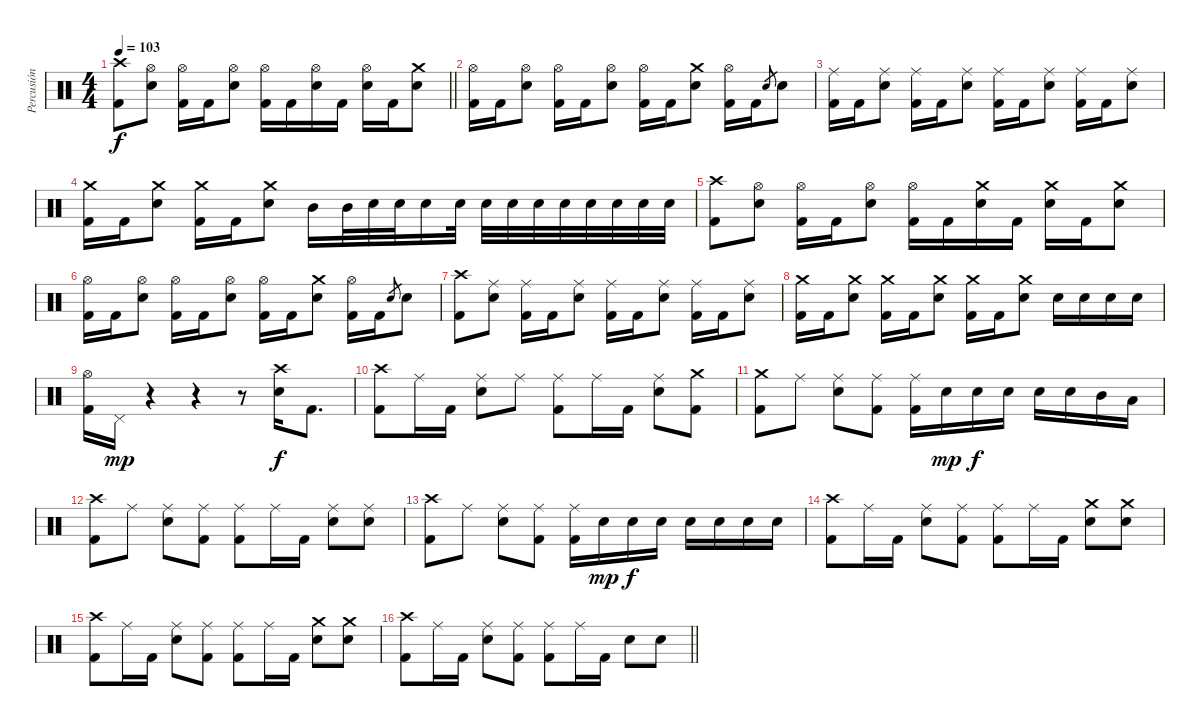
\track ("Percusión" "Percusión") {instrument percussion}
\staff {score}
\articulation defaults
\ts (4 4)
\tempo 103
\clef neutral
\barLineRight lightlight
\ks c
("Crash high (hit)" "Kick (hit) 2").8{dy f} ("Hi-Hat (open)" "Snare (hit) 2").8 ("Hi-Hat (open)" "Kick (hit) 2").16 "Kick (hit) 2".16 ("Hi-Hat (open)" "Snare (hit) 2").8 ("Hi-Hat (open)" "Kick (hit) 2").16 "Kick (hit) 2".16 ("Hi-Hat (open)" "Snare (hit) 2").16 "Kick (hit) 2".16 ("Hi-Hat (open)" "Snare (hit) 2").16 "Kick (hit) 2".16 ("Crash medium (hit)" "Snare (hit) 2").8 |
("Hi-Hat (open)" "Kick (hit) 2").16 "Kick (hit) 2".16 ("Hi-Hat (open)" "Snare (hit) 2").8 ("Hi-Hat (open)" "Kick (hit) 2").16 "Kick (hit) 2".16 ("Hi-Hat (open)" "Snare (hit) 2").8 ("Hi-Hat (open)" "Kick (hit) 2").16 "Kick (hit) 2".16 ("Crash medium (hit)" "Snare (hit) 2").8 ("Hi-Hat (open)" "Kick (hit) 2").16 "Kick (hit) 2".16 "Snare (hit) 2".8{gr} "Snare (hit) 2".8 |
("Ride (middle)" "Kick (hit) 2").16 "Kick (hit) 2".16 ("Ride (middle)" "Snare (hit) 2").8 ("Ride (middle)" "Kick (hit) 2").16 "Kick (hit) 2".16 ("Ride (middle)" "Snare (hit) 2").8 ("Ride (middle)" "Kick (hit) 2").16 "Kick (hit) 2".16 ("Ride (middle)" "Snare (hit) 2").8 ("Ride (middle)" "Kick (hit) 2").16 "Kick (hit) 2".16 ("Ride (middle)" "Snare (hit) 2").8 |
("Crash medium (hit)" "Kick (hit) 2").16 "Kick (hit) 2".16 ("Crash medium (hit)" "Snare (hit) 2").8 ("Crash medium (hit)" "Kick (hit) 2").16 "Kick (hit) 2".16 ("Crash medium (hit)" "Snare (hit) 2").8 "Mid Tom (hit)".16 "Mid Tom (hit)".32 "Snare (hit) 2".32 "Snare (hit) 2".32 "Snare (hit) 2".16 "Snare (hit) 2".32 "Snare (hit) 2".32 "Snare (hit) 2".32 "Snare (hit) 2".32 "Snare (hit) 2".32 "Snare (hit) 2".32 "Snare (hit) 2".32 "Snare (hit) 2".32 "Snare (hit) 2".32 |
("Crash high (hit)" "Kick (hit) 2").8 ("Hi-Hat (open)" "Snare (hit) 2").8 ("Hi-Hat (open)" "Kick (hit) 2").16 "Kick (hit) 2".16 ("Hi-Hat (open)" "Snare (hit) 2").8 ("Hi-Hat (open)" "Kick (hit) 2").16 "Kick (hit) 2".16 ("Crash medium (hit)" "Snare (hit) 2").16 "Kick (hit) 2".16 ("Crash medium (hit)" "Snare (hit) 2").16 "Kick (hit) 2".16 ("Crash medium (hit)" "Snare (hit) 2").8 |
("Hi-Hat (open)" "Kick (hit) 2").16 "Kick (hit) 2".16 ("Hi-Hat (open)" "Snare (hit) 2").8 ("Hi-Hat (open)" "Kick (hit) 2").16 "Kick (hit) 2".16 ("Hi-Hat (open)" "Snare (hit) 2").8 ("Hi-Hat (open)" "Kick (hit) 2").16 "Kick (hit) 2".16 ("Crash medium (hit)" "Snare (hit) 2").8 ("Hi-Hat (open)" "Kick (hit) 2").16 "Kick (hit) 2".16 "Snare (hit) 2".8{gr} "Snare (hit) 2".8 |
("Crash high (hit)" "Kick (hit) 2").8 ("Ride (middle)" "Snare (hit) 2").8 ("Ride (middle)" "Kick (hit) 2").16 "Kick (hit) 2".16 ("Ride (middle)" "Snare (hit) 2").8 ("Ride (middle)" "Kick (hit) 2").16 "Kick (hit) 2".16 ("Ride (middle)" "Snare (hit) 2").8 ("Ride (middle)" "Kick (hit) 2").16 "Kick (hit) 2".16 ("Ride (middle)" "Snare (hit) 2").8 |
("Crash medium (hit)" "Kick (hit) 2").16 "Kick (hit) 2".16 ("Crash medium (hit)" "Snare (hit) 2").8 ("Crash medium (hit)" "Kick (hit) 2").16 "Kick (hit) 2".16 ("Crash medium (hit)" "Snare (hit) 2").8 ("Crash medium (hit)" "Kick (hit) 2").16 "Kick (hit) 2".16 ("Crash medium (hit)" "Snare (hit) 2").8 "Snare (hit) 2".16 "Snare (hit) 2".16 "Snare (hit) 2".16 "Snare (hit) 2".16 |
("Hi-Hat (open)" "Kick (hit) 2").16 "Pedal Hi-Hat (hit)".16{dy mp} r.4 r.4 r.8 ("Crash high (hit)" "Snare (hit) 2").16{dy f} "Kick (hit) 2".8{d} |
("Crash high (hit)" "Kick (hit) 2").8 "Ride (middle)".16 "Kick (hit) 2".16 ("Ride (middle)" "Snare (hit) 2").8 "Ride (middle)".8 ("Ride (middle)" "Kick (hit) 2").8 "Ride (middle)".16 "Kick (hit) 2".16 ("Ride (middle)" "Snare (hit) 2").8 ("Crash medium (hit)" "Kick (hit) 2").8 |
("Crash medium (hit)" "Kick (hit) 2").8 "Ride (middle)".8 ("Ride (middle)" "Snare (hit) 2").8 ("Ride (middle)" "Kick (hit) 2").8 ("Ride (middle)" "Kick (hit) 2").16 "Snare (hit) 2".16{dy mp} "Snare (hit) 2".16{dy f} "Snare (hit) 2".16 "Snare (hit) 2".16 "Snare (hit) 2".16 "Mid Tom (hit)".16 "Low Tom (hit)".16 |
("Crash high (hit)" "Kick (hit) 2").8 "Ride (middle)".8 ("Ride (middle)" "Snare (hit) 2").8 ("Ride (middle)" "Kick (hit) 2").8 ("Ride (middle)" "Kick (hit) 2").8 "Ride (middle)".16 "Kick (hit) 2".16 ("Ride (middle)" "Snare (hit) 2").8 ("Ride (middle)" "Snare (hit) 2").8 |
("Crash high (hit)" "Kick (hit) 2").8 "Ride (middle)".8 ("Ride (middle)" "Snare (hit) 2").8 ("Ride (middle)" "Kick (hit) 2").8 ("Ride (middle)" "Kick (hit) 2").16 "Snare (hit) 2".16{dy mp} "Snare (hit) 2".16{dy f} "Snare (hit) 2".16 "Snare (hit) 2".16 "Snare (hit) 2".16 "Snare (hit) 2".16 "Snare (hit) 2".16 |
("Crash high (hit)" "Kick (hit) 2").8 "Ride (middle)".16 "Kick (hit) 2".16 ("Ride (middle)" "Snare (hit) 2").8 ("Ride (middle)" "Kick (hit) 2").8 ("Ride (middle)" "Kick (hit) 2").8 "Ride (middle)".16 "Kick (hit) 2".16 ("Crash medium (hit)" "Snare (hit) 2").8 ("Crash medium (hit)" "Snare (hit) 2").8 |
("Crash high (hit)" "Kick (hit) 2").8 "Ride (middle)".16 "Kick (hit) 2".16 ("Ride (middle)" "Snare (hit) 2").8 ("Ride (middle)" "Kick (hit) 2").8 ("Ride (middle)" "Kick (hit) 2").8 "Ride (middle)".16 "Kick (hit) 2".16 ("Crash medium (hit)" "Snare (hit) 2").8 ("Crash medium (hit)" "Snare (hit) 2").8 |
\barLineRight lightlight
("Crash high (hit)" "Kick (hit) 2").8 "Ride (middle)".16 "Kick (hit) 2".16 ("Ride (middle)" "Snare (hit) 2").8 ("Ride (middle)" "Kick (hit) 2").8 ("Ride (middle)" "Kick (hit) 2").8 "Ride (middle)".16 "Kick (hit) 2".16 "Snare (hit) 2".8 "Snare (hit) 2".8
